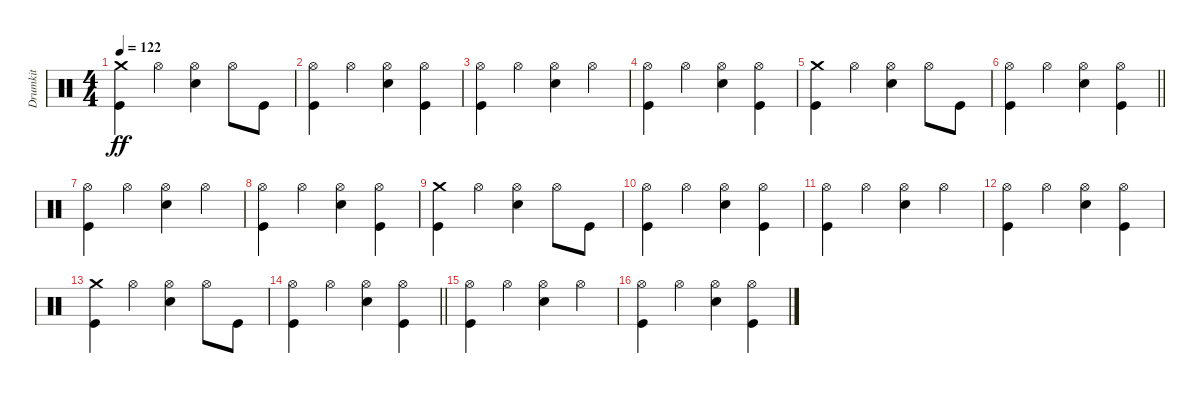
\track ("Drumkit" "Drumkit") {instrument percussion}
\staff {score}
\articulation defaults
\ts (4 4)
\tempo 122
\clef neutral
\ks c
("Kick (hit)" "Crash medium (hit)").4{dy ff} "Hi-Hat (open)".4 ("Snare (hit) 2" "Hi-Hat (open)").4 "Hi-Hat (open)".8 "Kick (hit)".8 |
("Kick (hit)" "Hi-Hat (open)").4 "Hi-Hat (open)".4 ("Snare (hit) 2" "Hi-Hat (open)").4 ("Hi-Hat (open)" "Kick (hit)").4 |
("Kick (hit)" "Hi-Hat (open)").4 "Hi-Hat (open)".4 ("Snare (hit) 2" "Hi-Hat (open)").4 "Hi-Hat (open)".4 |
("Kick (hit)" "Hi-Hat (open)").4 "Hi-Hat (open)".4 ("Snare (hit) 2" "Hi-Hat (open)").4 ("Hi-Hat (open)" "Kick (hit)").4 |
("Kick (hit)" "Crash medium (hit)").4 "Hi-Hat (open)".4 ("Snare (hit) 2" "Hi-Hat (open)").4 "Hi-Hat (open)".8 "Kick (hit)".8 |
\barLineRight lightlight
("Kick (hit)" "Hi-Hat (open)").4 "Hi-Hat (open)".4 ("Snare (hit) 2" "Hi-Hat (open)").4 ("Hi-Hat (open)" "Kick (hit)").4 |
("Kick (hit)" "Hi-Hat (open)").4 "Hi-Hat (open)".4 ("Snare (hit) 2" "Hi-Hat (open)").4 "Hi-Hat (open)".4 |
("Kick (hit)" "Hi-Hat (open)").4 "Hi-Hat (open)".4 ("Snare (hit) 2" "Hi-Hat (open)").4 ("Hi-Hat (open)" "Kick (hit)").4 |
("Kick (hit)" "Crash medium (hit)").4 "Hi-Hat (open)".4 ("Snare (hit) 2" "Hi-Hat (open)").4 "Hi-Hat (open)".8 "Kick (hit)".8 |
("Kick (hit)" "Hi-Hat (open)").4 "Hi-Hat (open)".4 ("Snare (hit) 2" "Hi-Hat (open)").4 ("Hi-Hat (open)" "Kick (hit)").4 |
("Kick (hit)" "Hi-Hat (open)").4 "Hi-Hat (open)".4 ("Snare (hit) 2" "Hi-Hat (open)").4 "Hi-Hat (open)".4 |
("Kick (hit)" "Hi-Hat (open)").4 "Hi-Hat (open)".4 ("Snare (hit) 2" "Hi-Hat (open)").4 ("Hi-Hat (open)" "Kick (hit)").4 |
("Kick (hit)" "Crash medium (hit)").4 "Hi-Hat (open)".4 ("Snare (hit) 2" "Hi-Hat (open)").4 "Hi-Hat (open)".8 "Kick (hit)".8 |
\barLineRight lightlight
("Kick (hit)" "Hi-Hat (open)").4 "Hi-Hat (open)".4 ("Snare (hit) 2" "Hi-Hat (open)").4 ("Hi-Hat (open)" "Kick (hit)").4 |
("Kick (hit)" "Hi-Hat (open)").4 "Hi-Hat (open)".4 ("Snare (hit) 2" "Hi-Hat (open)").4 "Hi-Hat (open)".4 |
("Kick (hit)" "Hi-Hat (open)").4 "Hi-Hat (open)".4 ("Snare (hit) 2" "Hi-Hat (open)").4 ("Hi-Hat (open)" "Kick (hit)").4
